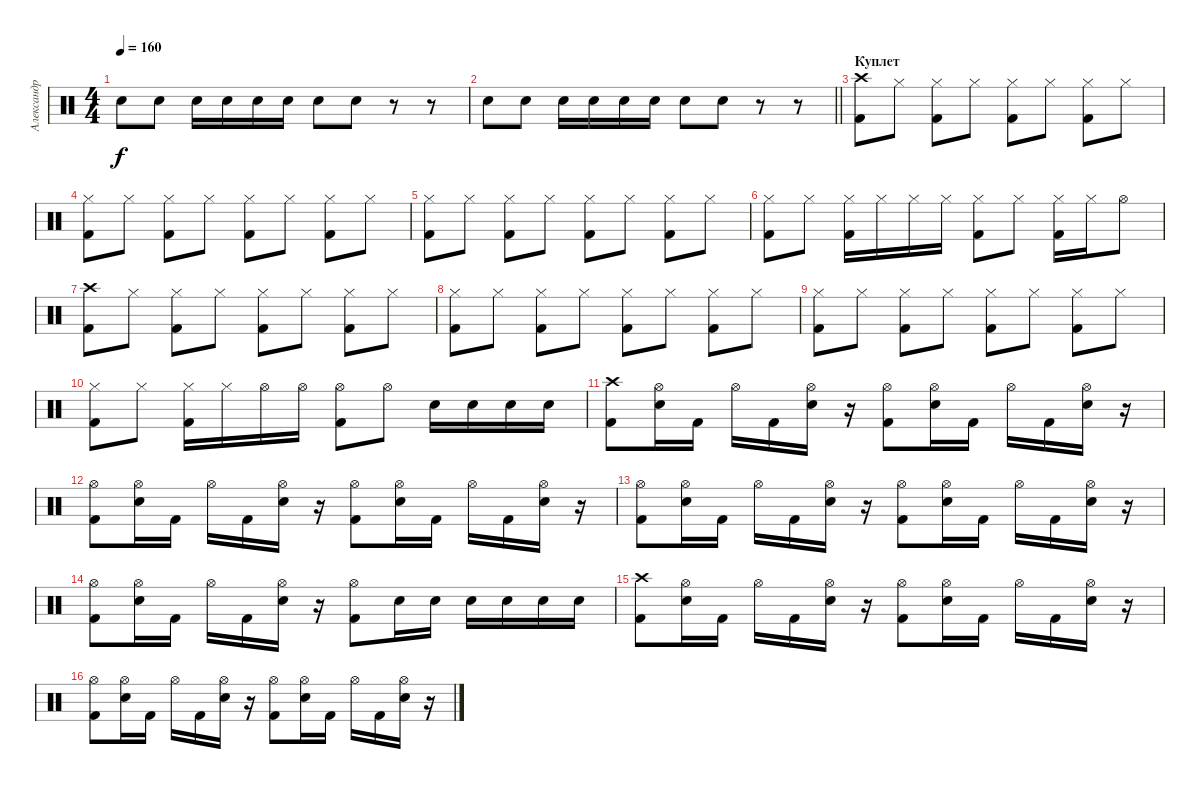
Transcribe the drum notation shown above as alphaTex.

\track ("Александр Карпухин" "Александр ") {instrument percussion}
\staff {score}
\articulation defaults
\ts (4 4)
\tempo 160
\clef neutral
\ks c "Electric Snare (hit)".8{dy f} "Electric Snare (hit)".8 "Electric Snare (hit)".16 "Electric Snare (hit)".16 "Electric Snare (hit)".16 "Electric Snare (hit)".16 "Electric Snare (hit)".8 "Electric Snare (hit)".8
r.8 r.8 |
\barLineRight lightlight "Electric Snare (hit)".8 "Electric Snare (hit)".8 "Electric Snare (hit)".16 "Electric Snare (hit)".16 "Electric Snare (hit)".16 "Electric Snare (hit)".16 "Electric Snare (hit)".8 "Electric Snare (hit)".8
r.8 r.8 |
\section ("" "Куплет")
("Crash high (hit)" "Kick (hit) 2").8 "Hi-Hat (closed)".8 ("Hi-Hat (closed)" "Kick (hit) 2").8 "Hi-Hat (closed)".8 ("Hi-Hat (closed)" "Kick (hit) 2").8 "Hi-Hat (closed)".8 ("Hi-Hat (closed)" "Kick (hit) 2").8 "Hi-Hat (closed)".8 |
("Hi-Hat (closed)" "Kick (hit) 2").8 "Hi-Hat (closed)".8 ("Hi-Hat (closed)" "Kick (hit) 2").8 "Hi-Hat (closed)".8 ("Hi-Hat (closed)" "Kick (hit) 2").8 "Hi-Hat (closed)".8 ("Hi-Hat (closed)" "Kick (hit) 2").8 "Hi-Hat (closed)".8 |
("Hi-Hat (closed)" "Kick (hit) 2").8 "Hi-Hat (closed)".8 ("Hi-Hat (closed)" "Kick (hit) 2").8 "Hi-Hat (closed)".8 ("Hi-Hat (closed)" "Kick (hit) 2").8 "Hi-Hat (closed)".8 ("Hi-Hat (closed)" "Kick (hit) 2").8 "Hi-Hat (closed)".8 |
("Hi-Hat (closed)" "Kick (hit) 2").8 "Hi-Hat (closed)".8 ("Hi-Hat (closed)" "Kick (hit) 2").16 "Hi-Hat (closed)".16 "Hi-Hat (closed)".16 "Hi-Hat (closed)".16 ("Hi-Hat (closed)" "Kick (hit) 2").8 "Hi-Hat (closed)".8 ("Hi-Hat (closed)" "Kick (hit) 2").16 "Hi-Hat (closed)".16 "Hi-Hat (open)".8 |
("Crash high (hit)" "Kick (hit) 2").8 "Hi-Hat (closed)".8 ("Hi-Hat (closed)" "Kick (hit) 2").8 "Hi-Hat (closed)".8 ("Hi-Hat (closed)" "Kick (hit) 2").8 "Hi-Hat (closed)".8 ("Hi-Hat (closed)" "Kick (hit) 2").8 "Hi-Hat (closed)".8 |
("Hi-Hat (closed)" "Kick (hit) 2").8 "Hi-Hat (closed)".8 ("Hi-Hat (closed)" "Kick (hit) 2").8 "Hi-Hat (closed)".8 ("Hi-Hat (closed)" "Kick (hit) 2").8 "Hi-Hat (closed)".8 ("Hi-Hat (closed)" "Kick (hit) 2").8 "Hi-Hat (closed)".8 |
("Hi-Hat (closed)" "Kick (hit) 2").8 "Hi-Hat (closed)".8 ("Hi-Hat (closed)" "Kick (hit) 2").8 "Hi-Hat (closed)".8 ("Hi-Hat (closed)" "Kick (hit) 2").8 "Hi-Hat (closed)".8 ("Hi-Hat (closed)" "Kick (hit) 2").8 "Hi-Hat (closed)".8 |
("Hi-Hat (closed)" "Kick (hit) 2").8 "Hi-Hat (closed)".8 ("Hi-Hat (closed)" "Kick (hit) 2").16 "Hi-Hat (closed)".16 "Hi-Hat (open)".16 "Hi-Hat (open)".16 ("Hi-Hat (open)" "Kick (hit) 2").8 "Hi-Hat (open)".8 "Electric Snare (hit)".16 "Electric Snare (hit)".16 "Electric Snare (hit)".16 "Electric Snare (hit)".16 |
("Crash high (hit)" "Kick (hit) 2").8 ("Hi-Hat (open)" "Electric Snare (hit)").16 "Kick (hit) 2".16 "Hi-Hat (open)".16 "Kick (hit) 2".16 ("Hi-Hat (open)" "Electric Snare (hit)").16 r.16 ("Hi-Hat (open)" "Kick (hit) 2").8 ("Hi-Hat (open)" "Electric Snare (hit)").16 "Kick (hit) 2".16 "Hi-Hat (open)".16 "Kick (hit) 2".16 ("Hi-Hat (open)" "Electric Snare (hit)").16 r.16 |
("Hi-Hat (open)" "Kick (hit) 2").8 ("Hi-Hat (open)" "Electric Snare (hit)").16 "Kick (hit) 2".16 "Hi-Hat (open)".16 "Kick (hit) 2".16 ("Hi-Hat (open)" "Electric Snare (hit)").16 r.16 ("Hi-Hat (open)" "Kick (hit) 2").8 ("Hi-Hat (open)" "Electric Snare (hit)").16 "Kick (hit) 2".16 "Hi-Hat (open)".16 "Kick (hit) 2".16 ("Hi-Hat (open)" "Electric Snare (hit)").16 r.16 |
("Hi-Hat (open)" "Kick (hit) 2").8 ("Hi-Hat (open)" "Electric Snare (hit)").16 "Kick (hit) 2".16 "Hi-Hat (open)".16 "Kick (hit) 2".16 ("Hi-Hat (open)" "Electric Snare (hit)").16 r.16 ("Hi-Hat (open)" "Kick (hit) 2").8 ("Hi-Hat (open)" "Electric Snare (hit)").16 "Kick (hit) 2".16 "Hi-Hat (open)".16 "Kick (hit) 2".16 ("Hi-Hat (open)" "Electric Snare (hit)").16 r.16 |
("Hi-Hat (open)" "Kick (hit) 2").8 ("Hi-Hat (open)" "Electric Snare (hit)").16 "Kick (hit) 2".16 "Hi-Hat (open)".16 "Kick (hit) 2".16 ("Hi-Hat (open)" "Electric Snare (hit)").16 r.16 ("Hi-Hat (open)" "Kick (hit) 2").8 "Electric Snare (hit)".16 "Electric Snare (hit)".16 "Electric Snare (hit)".16 "Electric Snare (hit)".16 "Electric Snare (hit)".16 "Electric Snare (hit)".16 |
("Crash high (hit)" "Kick (hit) 2").8 ("Hi-Hat (open)" "Electric Snare (hit)").16 "Kick (hit) 2".16 "Hi-Hat (open)".16 "Kick (hit) 2".16 ("Hi-Hat (open)" "Electric Snare (hit)").16 r.16 ("Hi-Hat (open)" "Kick (hit) 2").8 ("Hi-Hat (open)" "Electric Snare (hit)").16 "Kick (hit) 2".16 "Hi-Hat (open)".16 "Kick (hit) 2".16 ("Hi-Hat (open)" "Electric Snare (hit)").16 r.16 |
("Hi-Hat (open)" "Kick (hit) 2").8 ("Hi-Hat (open)" "Electric Snare (hit)").16 "Kick (hit) 2".16 "Hi-Hat (open)".16 "Kick (hit) 2".16 ("Hi-Hat (open)" "Electric Snare (hit)").16 r.16 ("Hi-Hat (open)" "Kick (hit) 2").8 ("Hi-Hat (open)" "Electric Snare (hit)").16 "Kick (hit) 2".16 "Hi-Hat (open)".16 "Kick (hit) 2".16 ("Hi-Hat (open)" "Electric Snare (hit)").16 r.16
